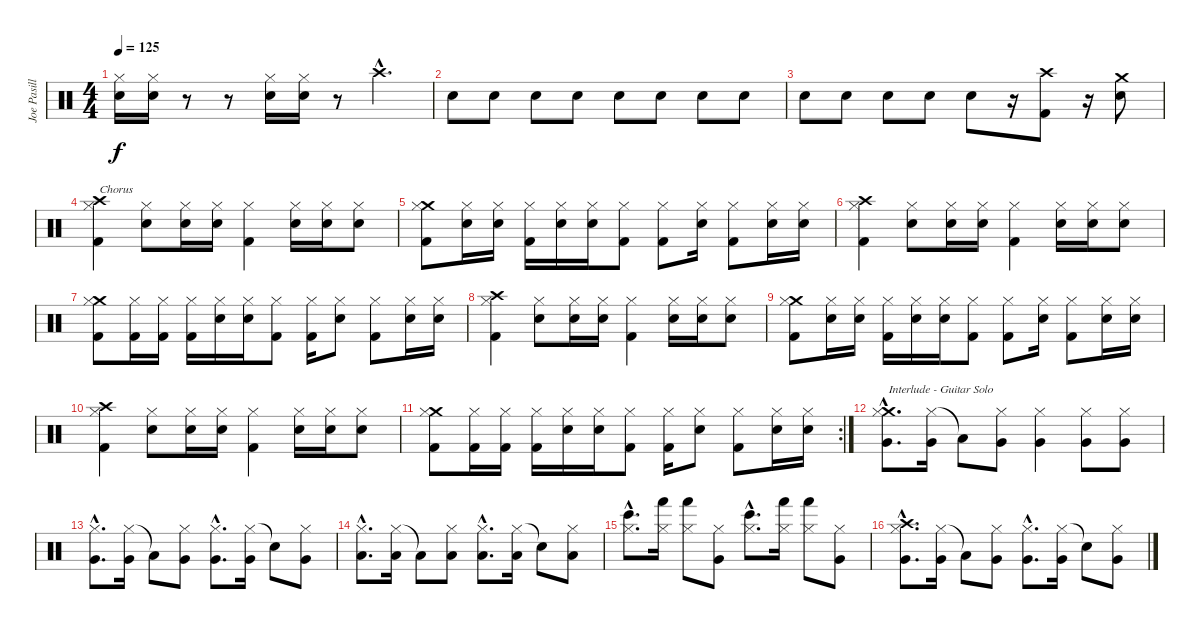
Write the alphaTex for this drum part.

\track ("Joe Pasillas" "Joe Pasill") {instrument percussion}
\staff {score}
\articulation defaults
\ts (4 4)
\tempo 125
\clef neutral
\ks c
("Hi-Hat (closed)" "Snare (hit) 2").16{dy f} ("Hi-Hat (closed)" "Snare (hit) 2").16 r.8 r.8 ("Hi-Hat (closed)" "Snare (hit) 2").16 ("Hi-Hat (closed)" "Snare (hit) 2").16 r.8 "Crash high (hit)"{hac}.4{d} |
"Snare (hit) 2".8 "Electric Snare (hit)".8 "Snare (hit) 2".8 "Electric Snare (hit)".8 "Snare (hit) 2".8 "Electric Snare (hit)".8 "Snare (hit) 2".8 "Electric Snare (hit)".8 |
"Snare (hit) 2".8 "Electric Snare (hit)".8 "Snare (hit) 2".8 "Electric Snare (hit)".8 "Snare (hit) 2".8 r.16 ("Crash high (hit)" "Kick (hit) 2").8 r.16 ("Crash medium (hit)" "Snare (hit) 2").8 |
("Crash high (hit)" "Hi-Hat (closed)" "Kick (hit) 2").4{txt "Chorus"} ("Hi-Hat (closed)" "Snare (hit) 2").8 ("Hi-Hat (closed)" "Snare (hit) 2").16 ("Hi-Hat (closed)" "Snare (hit) 2").16 ("Hi-Hat (closed)" "Kick (hit) 2").4 ("Hi-Hat (closed)" "Snare (hit) 2").16 ("Hi-Hat (closed)" "Snare (hit) 2").16 ("Hi-Hat (closed)" "Snare (hit) 2").8 |
("Crash medium (hit)" "Hi-Hat (closed)" "Kick (hit) 2").8 ("Hi-Hat (closed)" "Snare (hit) 2").16 ("Hi-Hat (closed)" "Snare (hit) 2").16 ("Hi-Hat (closed)" "Kick (hit) 2").16 ("Hi-Hat (closed)" "Snare (hit) 2").16 ("Hi-Hat (closed)" "Snare (hit) 2").16 ("Hi-Hat (closed)" "Kick (hit) 2").8 ("Hi-Hat (closed)" "Kick (hit) 2").8 ("Hi-Hat (closed)" "Snare (hit) 2").16 ("Hi-Hat (closed)" "Kick (hit) 2").8 ("Hi-Hat (closed)" "Snare (hit) 2").16 ("Hi-Hat (closed)" "Snare (hit) 2").16 |
("Crash high (hit)" "Hi-Hat (closed)" "Kick (hit) 2").4 ("Hi-Hat (closed)" "Snare (hit) 2").8 ("Hi-Hat (closed)" "Snare (hit) 2").16 ("Hi-Hat (closed)" "Snare (hit) 2").16 ("Hi-Hat (closed)" "Kick (hit) 2").4 ("Hi-Hat (closed)" "Snare (hit) 2").16 ("Hi-Hat (closed)" "Snare (hit) 2").16 ("Hi-Hat (closed)" "Snare (hit) 2").8 |
("Crash medium (hit)" "Hi-Hat (closed)" "Kick (hit) 2").8 ("Hi-Hat (closed)" "Kick (hit) 2").16 ("Hi-Hat (closed)" "Kick (hit) 2").16 ("Hi-Hat (closed)" "Kick (hit) 2").16 ("Hi-Hat (closed)" "Snare (hit) 2").16 ("Hi-Hat (closed)" "Snare (hit) 2").16 ("Hi-Hat (closed)" "Kick (hit) 2").8 ("Hi-Hat (closed)" "Kick (hit) 2").16 ("Hi-Hat (closed)" "Snare (hit) 2").8 ("Hi-Hat (closed)" "Kick (hit) 2").8 ("Hi-Hat (closed)" "Snare (hit) 2").16 ("Hi-Hat (closed)" "Snare (hit) 2").16 |
("Crash high (hit)" "Hi-Hat (closed)" "Kick (hit) 2").4 ("Hi-Hat (closed)" "Snare (hit) 2").8 ("Hi-Hat (closed)" "Snare (hit) 2").16 ("Hi-Hat (closed)" "Snare (hit) 2").16 ("Hi-Hat (closed)" "Kick (hit) 2").4 ("Hi-Hat (closed)" "Snare (hit) 2").16 ("Hi-Hat (closed)" "Snare (hit) 2").16 ("Hi-Hat (closed)" "Snare (hit) 2").8 |
("Crash medium (hit)" "Hi-Hat (closed)" "Kick (hit) 2").8 ("Hi-Hat (closed)" "Snare (hit) 2").16 ("Hi-Hat (closed)" "Snare (hit) 2").16 ("Hi-Hat (closed)" "Kick (hit) 2").16 ("Hi-Hat (closed)" "Snare (hit) 2").16 ("Hi-Hat (closed)" "Snare (hit) 2").16 ("Hi-Hat (closed)" "Kick (hit) 2").8 ("Hi-Hat (closed)" "Kick (hit) 2").8 ("Hi-Hat (closed)" "Snare (hit) 2").16 ("Hi-Hat (closed)" "Kick (hit) 2").8 ("Hi-Hat (closed)" "Snare (hit) 2").16 ("Hi-Hat (closed)" "Snare (hit) 2").16 |
("Crash high (hit)" "Hi-Hat (closed)" "Kick (hit) 2").4 ("Hi-Hat (closed)" "Snare (hit) 2").8 ("Hi-Hat (closed)" "Snare (hit) 2").16 ("Hi-Hat (closed)" "Snare (hit) 2").16 ("Hi-Hat (closed)" "Kick (hit) 2").4 ("Hi-Hat (closed)" "Snare (hit) 2").16 ("Hi-Hat (closed)" "Snare (hit) 2").16 ("Hi-Hat (closed)" "Snare (hit) 2").8 |
\rc 2
("Crash medium (hit)" "Hi-Hat (closed)" "Kick (hit) 2").8 ("Hi-Hat (closed)" "Kick (hit) 2").16 ("Hi-Hat (closed)" "Kick (hit) 2").16 ("Hi-Hat (closed)" "Kick (hit) 2").16 ("Hi-Hat (closed)" "Snare (hit) 2").16 ("Hi-Hat (closed)" "Snare (hit) 2").16 ("Hi-Hat (closed)" "Kick (hit) 2").8 ("Hi-Hat (closed)" "Kick (hit) 2").16 ("Hi-Hat (closed)" "Snare (hit) 2").8 ("Hi-Hat (closed)" "Kick (hit) 2").8 ("Hi-Hat (closed)" "Snare (hit) 2").16 ("Hi-Hat (closed)" "Snare (hit) 2").16 |
("Crash medium (hit)"{hac} "Hi-Hat (closed)"{hac} "Very Low Tom (hit)"{hac}).8{d txt "Interlude - Guitar Solo"} ("Hi-Hat (closed)" "Very Low Tom (hit)").16 "Low Floor Tom (hit)"{t}.8 ("Hi-Hat (closed)" "Very Low Tom (hit)").8 ("Hi-Hat (closed)" "Very Low Tom (hit)").4 ("Hi-Hat (closed)" "Very Low Tom (hit)").8 ("Hi-Hat (closed)" "Very Low Tom (hit)").8 |
("Hi-Hat (closed)"{hac} "Very Low Tom (hit)"{hac}).8{d} ("Hi-Hat (closed)" "Very Low Tom (hit)").16 "Low Floor Tom (hit)"{t}.8 ("Hi-Hat (closed)" "Very Low Tom (hit)").8 ("Hi-Hat (closed)"{hac} "Very Low Tom (hit)"{hac}).8{d} ("Hi-Hat (closed)" "Very Low Tom (hit)").16 "Snare (hit)"{t}.8 ("Hi-Hat (closed)" "Very Low Tom (hit)").8 |
("Hi-Hat (closed)"{hac} "Low Tom (hit)"{hac}).8{d} ("Hi-Hat (closed)" "Low Tom (hit)").16 "Low Floor Tom (hit)"{t}.8 ("Hi-Hat (closed)" "Low Tom (hit)").8 ("Hi-Hat (closed)"{hac} "Low Tom (hit)"{hac}).8{d} ("Hi-Hat (closed)" "Low Tom (hit)").16 "Snare (hit)"{t}.8 ("Hi-Hat (closed)" "Low Tom (hit)").8 |
("Hi-Hat (closed)"{hac} "Bongo High (hit)"{hac}).8{d} ("Hi-Hat (closed)" "Hand (hit)").16 ("Hi-Hat (closed)" "Hand (hit)").8 ("Hi-Hat (closed)" "Very Low Tom (hit)").8 ("Hi-Hat (closed)"{hac} "Bongo High (hit)"{hac}).8{d} ("Hi-Hat (closed)" "Hand (hit)").16 ("Hi-Hat (closed)" "Hand (hit)").8 ("Hi-Hat (closed)" "Very Low Tom (hit)").8 |
("Crash high (hit)"{hac} "Hi-Hat (closed)"{hac} "Very Low Tom (hit)"{hac}).8{d} ("Hi-Hat (closed)" "Very Low Tom (hit)").16 "Low Floor Tom (hit)"{t}.8 ("Hi-Hat (closed)" "Very Low Tom (hit)").8 ("Hi-Hat (closed)"{hac} "Very Low Tom (hit)"{hac}).8{d} ("Hi-Hat (closed)" "Very Low Tom (hit)").16 "Snare (hit)"{t}.8 ("Hi-Hat (closed)" "Very Low Tom (hit)").8
